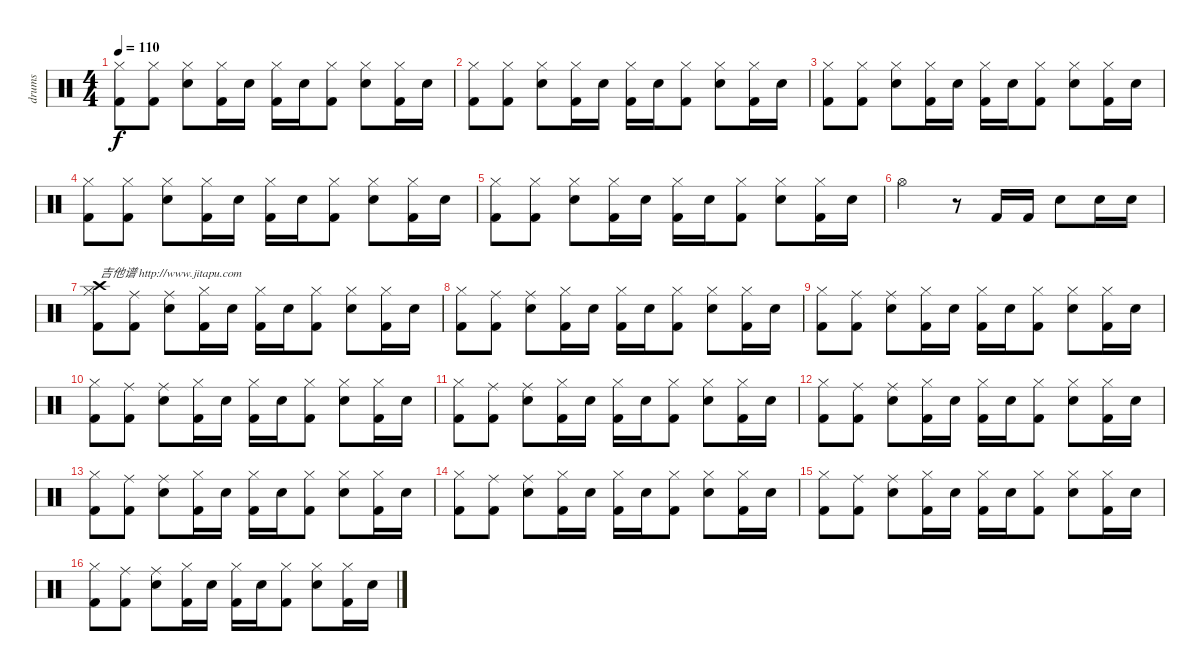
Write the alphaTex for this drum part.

\track ("drums" "drums") {instrument percussion}
\staff {score}
\articulation defaults
\ts (4 4)
\tempo 110
\clef neutral
\ks c
("Hi-Hat (closed)" "Kick (hit) 2").8{dy f} ("Hi-Hat (closed)" "Kick (hit) 2").8 ("Hi-Hat (closed)" "Snare (hit) 2").8 ("Hi-Hat (closed)" "Kick (hit) 2").16 "Snare (hit) 2".16 ("Hi-Hat (closed)" "Kick (hit) 2").16 "Snare (hit) 2".16 ("Hi-Hat (closed)" "Kick (hit) 2").8 ("Hi-Hat (closed)" "Snare (hit) 2").8 ("Hi-Hat (closed)" "Kick (hit) 2").16 "Snare (hit) 2".16 |
("Hi-Hat (closed)" "Kick (hit) 2").8 ("Hi-Hat (closed)" "Kick (hit) 2").8 ("Hi-Hat (closed)" "Snare (hit) 2").8 ("Hi-Hat (closed)" "Kick (hit) 2").16 "Snare (hit) 2".16 ("Hi-Hat (closed)" "Kick (hit) 2").16 "Snare (hit) 2".16 ("Hi-Hat (closed)" "Kick (hit) 2").8 ("Hi-Hat (closed)" "Snare (hit) 2").8 ("Hi-Hat (closed)" "Kick (hit) 2").16 "Snare (hit) 2".16 |
("Hi-Hat (closed)" "Kick (hit) 2").8 ("Hi-Hat (closed)" "Kick (hit) 2").8 ("Hi-Hat (closed)" "Snare (hit) 2").8 ("Hi-Hat (closed)" "Kick (hit) 2").16 "Snare (hit) 2".16 ("Hi-Hat (closed)" "Kick (hit) 2").16 "Snare (hit) 2".16 ("Hi-Hat (closed)" "Kick (hit) 2").8 ("Hi-Hat (closed)" "Snare (hit) 2").8 ("Hi-Hat (closed)" "Kick (hit) 2").16 "Snare (hit) 2".16 |
("Hi-Hat (closed)" "Kick (hit) 2").8 ("Hi-Hat (closed)" "Kick (hit) 2").8 ("Hi-Hat (closed)" "Snare (hit) 2").8 ("Hi-Hat (closed)" "Kick (hit) 2").16 "Snare (hit) 2".16 ("Hi-Hat (closed)" "Kick (hit) 2").16 "Snare (hit) 2".16 ("Hi-Hat (closed)" "Kick (hit) 2").8 ("Hi-Hat (closed)" "Snare (hit) 2").8 ("Hi-Hat (closed)" "Kick (hit) 2").16 "Snare (hit) 2".16 |
("Hi-Hat (closed)" "Kick (hit) 2").8 ("Hi-Hat (closed)" "Kick (hit) 2").8 ("Hi-Hat (closed)" "Snare (hit) 2").8 ("Hi-Hat (closed)" "Kick (hit) 2").16 "Snare (hit) 2".16 ("Hi-Hat (closed)" "Kick (hit) 2").16 "Snare (hit) 2".16 ("Hi-Hat (closed)" "Kick (hit) 2").8 ("Hi-Hat (closed)" "Snare (hit) 2").8 ("Hi-Hat (closed)" "Kick (hit) 2").16 "Snare (hit) 2".16 |
"Hi-Hat (open)".2 r.8 "Kick (hit) 2".16 "Kick (hit) 2".16 "Snare (hit) 2".8 "Snare (hit) 2".16 "Snare (hit) 2".16 |
("Crash high (hit)" "Hi-Hat (closed)" "Kick (hit) 2").8{txt "吉他谱 http://www.jitapu.com"} ("Ride (middle)" "Kick (hit) 2").8 ("Ride (middle)" "Snare (hit) 2").8 ("Hi-Hat (closed)" "Kick (hit) 2").16 "Snare (hit) 2".16 ("Hi-Hat (closed)" "Kick (hit) 2").16 "Snare (hit) 2".16 ("Hi-Hat (closed)" "Kick (hit) 2").8 ("Hi-Hat (closed)" "Snare (hit) 2").8 ("Hi-Hat (closed)" "Kick (hit) 2").16 "Snare (hit) 2".16 |
("Hi-Hat (closed)" "Kick (hit) 2").8 ("Ride (middle)" "Kick (hit) 2").8 ("Ride (middle)" "Snare (hit) 2").8 ("Hi-Hat (closed)" "Kick (hit) 2").16 "Snare (hit) 2".16 ("Hi-Hat (closed)" "Kick (hit) 2").16 "Snare (hit) 2".16 ("Hi-Hat (closed)" "Kick (hit) 2").8 ("Hi-Hat (closed)" "Snare (hit) 2").8 ("Hi-Hat (closed)" "Kick (hit) 2").16 "Snare (hit) 2".16 |
("Hi-Hat (closed)" "Kick (hit) 2").8 ("Ride (middle)" "Kick (hit) 2").8 ("Ride (middle)" "Snare (hit) 2").8 ("Hi-Hat (closed)" "Kick (hit) 2").16 "Snare (hit) 2".16 ("Hi-Hat (closed)" "Kick (hit) 2").16 "Snare (hit) 2".16 ("Hi-Hat (closed)" "Kick (hit) 2").8 ("Hi-Hat (closed)" "Snare (hit) 2").8 ("Hi-Hat (closed)" "Kick (hit) 2").16 "Snare (hit) 2".16 |
("Hi-Hat (closed)" "Kick (hit) 2").8 ("Ride (middle)" "Kick (hit) 2").8 ("Ride (middle)" "Snare (hit) 2").8 ("Hi-Hat (closed)" "Kick (hit) 2").16 "Snare (hit) 2".16 ("Hi-Hat (closed)" "Kick (hit) 2").16 "Snare (hit) 2".16 ("Hi-Hat (closed)" "Kick (hit) 2").8 ("Hi-Hat (closed)" "Snare (hit) 2").8 ("Hi-Hat (closed)" "Kick (hit) 2").16 "Snare (hit) 2".16 |
("Hi-Hat (closed)" "Kick (hit) 2").8 ("Ride (middle)" "Kick (hit) 2").8 ("Ride (middle)" "Snare (hit) 2").8 ("Hi-Hat (closed)" "Kick (hit) 2").16 "Snare (hit) 2".16 ("Hi-Hat (closed)" "Kick (hit) 2").16 "Snare (hit) 2".16 ("Hi-Hat (closed)" "Kick (hit) 2").8 ("Hi-Hat (closed)" "Snare (hit) 2").8 ("Hi-Hat (closed)" "Kick (hit) 2").16 "Snare (hit) 2".16 |
("Hi-Hat (closed)" "Kick (hit) 2").8 ("Ride (middle)" "Kick (hit) 2").8 ("Ride (middle)" "Snare (hit) 2").8 ("Hi-Hat (closed)" "Kick (hit) 2").16 "Snare (hit) 2".16 ("Hi-Hat (closed)" "Kick (hit) 2").16 "Snare (hit) 2".16 ("Hi-Hat (closed)" "Kick (hit) 2").8 ("Hi-Hat (closed)" "Snare (hit) 2").8 ("Hi-Hat (closed)" "Kick (hit) 2").16 "Snare (hit) 2".16 |
("Hi-Hat (closed)" "Kick (hit) 2").8 ("Ride (middle)" "Kick (hit) 2").8 ("Ride (middle)" "Snare (hit) 2").8 ("Hi-Hat (closed)" "Kick (hit) 2").16 "Snare (hit) 2".16 ("Hi-Hat (closed)" "Kick (hit) 2").16 "Snare (hit) 2".16 ("Hi-Hat (closed)" "Kick (hit) 2").8 ("Hi-Hat (closed)" "Snare (hit) 2").8 ("Hi-Hat (closed)" "Kick (hit) 2").16 "Snare (hit) 2".16 |
("Hi-Hat (closed)" "Kick (hit) 2").8 ("Ride (middle)" "Kick (hit) 2").8 ("Ride (middle)" "Snare (hit) 2").8 ("Hi-Hat (closed)" "Kick (hit) 2").16 "Snare (hit) 2".16 ("Hi-Hat (closed)" "Kick (hit) 2").16 "Snare (hit) 2".16 ("Hi-Hat (closed)" "Kick (hit) 2").8 ("Hi-Hat (closed)" "Snare (hit) 2").8 ("Hi-Hat (closed)" "Kick (hit) 2").16 "Snare (hit) 2".16 |
("Hi-Hat (closed)" "Kick (hit) 2").8 ("Ride (middle)" "Kick (hit) 2").8 ("Ride (middle)" "Snare (hit) 2").8 ("Hi-Hat (closed)" "Kick (hit) 2").16 "Snare (hit) 2".16 ("Hi-Hat (closed)" "Kick (hit) 2").16 "Snare (hit) 2".16 ("Hi-Hat (closed)" "Kick (hit) 2").8 ("Hi-Hat (closed)" "Snare (hit) 2").8 ("Hi-Hat (closed)" "Kick (hit) 2").16 "Snare (hit) 2".16 |
("Hi-Hat (closed)" "Kick (hit) 2").8 ("Ride (middle)" "Kick (hit) 2").8 ("Ride (middle)" "Snare (hit) 2").8 ("Hi-Hat (closed)" "Kick (hit) 2").16 "Snare (hit) 2".16 ("Hi-Hat (closed)" "Kick (hit) 2").16 "Snare (hit) 2".16 ("Hi-Hat (closed)" "Kick (hit) 2").8 ("Hi-Hat (closed)" "Snare (hit) 2").8 ("Hi-Hat (closed)" "Kick (hit) 2").16 "Snare (hit) 2".16
